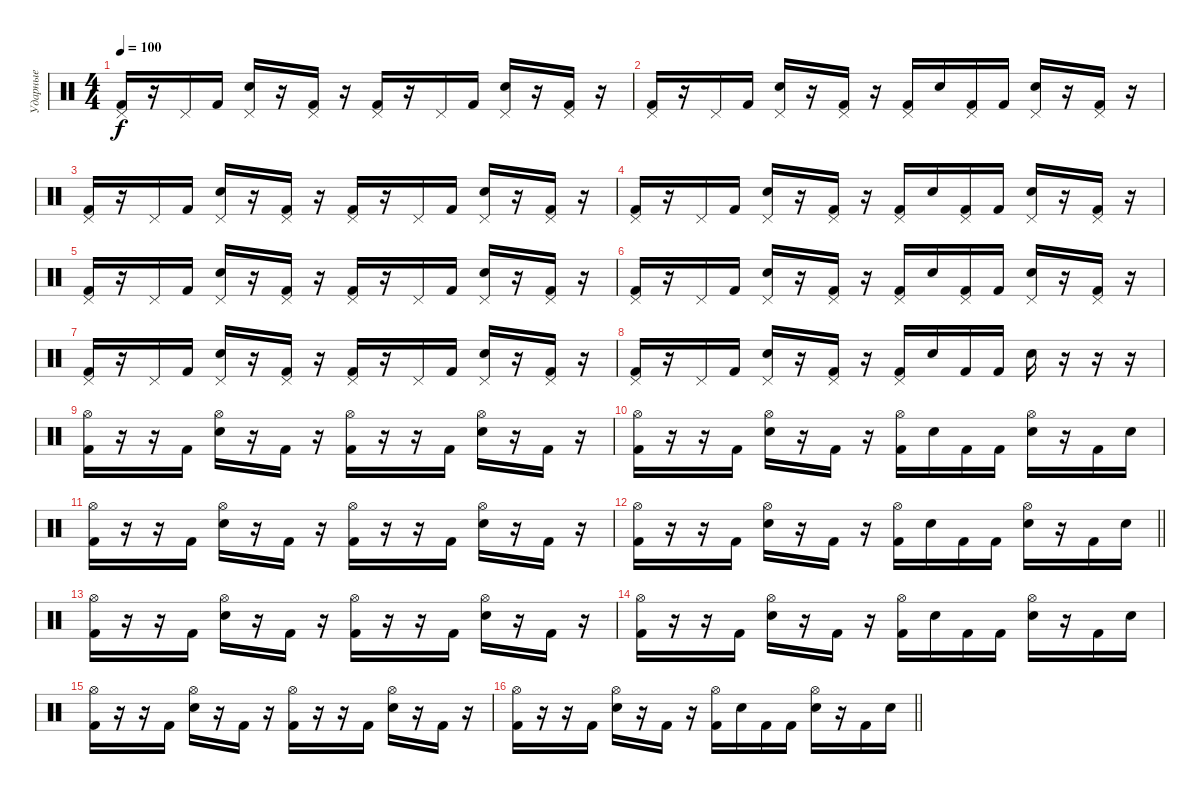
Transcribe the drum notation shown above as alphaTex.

\track ("Ударные" "Ударные") {instrument percussion}
\staff {score}
\articulation defaults
\ts (4 4)
\tempo 100
\clef neutral
\ks c
("Kick (hit) 2" "Pedal Hi-Hat (hit)").16{dy f} r.16 "Pedal Hi-Hat (hit)".16 "Kick (hit) 2".16 ("Electric Snare (hit)" "Pedal Hi-Hat (hit)").16 r.16 ("Kick (hit) 2" "Pedal Hi-Hat (hit)").16 r.16 ("Kick (hit) 2" "Pedal Hi-Hat (hit)").16 r.16 "Pedal Hi-Hat (hit)".16 "Kick (hit) 2".16 ("Electric Snare (hit)" "Pedal Hi-Hat (hit)").16 r.16 ("Kick (hit) 2" "Pedal Hi-Hat (hit)").16 r.16 |
("Kick (hit) 2" "Pedal Hi-Hat (hit)").16 r.16 "Pedal Hi-Hat (hit)".16 "Kick (hit) 2".16 ("Electric Snare (hit)" "Pedal Hi-Hat (hit)").16 r.16 ("Kick (hit) 2" "Pedal Hi-Hat (hit)").16 r.16 ("Kick (hit) 2" "Pedal Hi-Hat (hit)").16 "Electric Snare (hit)".16 ("Kick (hit) 2" "Pedal Hi-Hat (hit)").16 "Kick (hit) 2".16 ("Electric Snare (hit)" "Pedal Hi-Hat (hit)").16 r.16 ("Kick (hit) 2" "Pedal Hi-Hat (hit)").16 r.16 |
("Kick (hit) 2" "Pedal Hi-Hat (hit)").16 r.16 "Pedal Hi-Hat (hit)".16 "Kick (hit) 2".16 ("Electric Snare (hit)" "Pedal Hi-Hat (hit)").16 r.16 ("Kick (hit) 2" "Pedal Hi-Hat (hit)").16 r.16 ("Kick (hit) 2" "Pedal Hi-Hat (hit)").16 r.16 "Pedal Hi-Hat (hit)".16 "Kick (hit) 2".16 ("Electric Snare (hit)" "Pedal Hi-Hat (hit)").16 r.16 ("Kick (hit) 2" "Pedal Hi-Hat (hit)").16 r.16 |
("Kick (hit) 2" "Pedal Hi-Hat (hit)").16 r.16 "Pedal Hi-Hat (hit)".16 "Kick (hit) 2".16 ("Electric Snare (hit)" "Pedal Hi-Hat (hit)").16 r.16 ("Kick (hit) 2" "Pedal Hi-Hat (hit)").16 r.16 ("Kick (hit) 2" "Pedal Hi-Hat (hit)").16 "Electric Snare (hit)".16 ("Kick (hit) 2" "Pedal Hi-Hat (hit)").16 "Kick (hit) 2".16 ("Electric Snare (hit)" "Pedal Hi-Hat (hit)").16 r.16 ("Kick (hit) 2" "Pedal Hi-Hat (hit)").16 r.16 |
("Kick (hit) 2" "Pedal Hi-Hat (hit)").16 r.16 "Pedal Hi-Hat (hit)".16 "Kick (hit) 2".16 ("Electric Snare (hit)" "Pedal Hi-Hat (hit)").16 r.16 ("Kick (hit) 2" "Pedal Hi-Hat (hit)").16 r.16 ("Kick (hit) 2" "Pedal Hi-Hat (hit)").16 r.16 "Pedal Hi-Hat (hit)".16 "Kick (hit) 2".16 ("Electric Snare (hit)" "Pedal Hi-Hat (hit)").16 r.16 ("Kick (hit) 2" "Pedal Hi-Hat (hit)").16 r.16 |
("Kick (hit) 2" "Pedal Hi-Hat (hit)").16 r.16 "Pedal Hi-Hat (hit)".16 "Kick (hit) 2".16 ("Electric Snare (hit)" "Pedal Hi-Hat (hit)").16 r.16 ("Kick (hit) 2" "Pedal Hi-Hat (hit)").16 r.16 ("Kick (hit) 2" "Pedal Hi-Hat (hit)").16 "Electric Snare (hit)".16 ("Kick (hit) 2" "Pedal Hi-Hat (hit)").16 "Kick (hit) 2".16 ("Electric Snare (hit)" "Pedal Hi-Hat (hit)").16 r.16 ("Kick (hit) 2" "Pedal Hi-Hat (hit)").16 r.16 |
("Kick (hit) 2" "Pedal Hi-Hat (hit)").16 r.16 "Pedal Hi-Hat (hit)".16 "Kick (hit) 2".16 ("Electric Snare (hit)" "Pedal Hi-Hat (hit)").16 r.16 ("Kick (hit) 2" "Pedal Hi-Hat (hit)").16 r.16 ("Kick (hit) 2" "Pedal Hi-Hat (hit)").16 r.16 "Pedal Hi-Hat (hit)".16 "Kick (hit) 2".16 ("Electric Snare (hit)" "Pedal Hi-Hat (hit)").16 r.16 ("Kick (hit) 2" "Pedal Hi-Hat (hit)").16 r.16 |
("Kick (hit) 2" "Pedal Hi-Hat (hit)").16 r.16 "Pedal Hi-Hat (hit)".16 "Kick (hit) 2".16 ("Electric Snare (hit)" "Pedal Hi-Hat (hit)").16 r.16 ("Kick (hit) 2" "Pedal Hi-Hat (hit)").16 r.16 ("Kick (hit) 2" "Pedal Hi-Hat (hit)").16 "Electric Snare (hit)".16 "Kick (hit) 2".16 "Kick (hit) 2".16 "Electric Snare (hit)".16 r.16 r.16 r.16 |
("Kick (hit) 2" "Hi-Hat (open)").16 r.16 r.16 "Kick (hit) 2".16 ("Electric Snare (hit)" "Hi-Hat (open)").16 r.16 "Kick (hit) 2".16 r.16 ("Kick (hit) 2" "Hi-Hat (open)").16 r.16 r.16 "Kick (hit) 2".16 ("Electric Snare (hit)" "Hi-Hat (open)").16 r.16 "Kick (hit) 2".16 r.16 |
("Kick (hit) 2" "Hi-Hat (open)").16 r.16 r.16 "Kick (hit) 2".16 ("Electric Snare (hit)" "Hi-Hat (open)").16 r.16 "Kick (hit) 2".16 r.16 ("Kick (hit) 2" "Hi-Hat (open)").16 "Electric Snare (hit)".16 "Kick (hit) 2".16 "Kick (hit) 2".16 ("Electric Snare (hit)" "Hi-Hat (open)").16 r.16 "Kick (hit) 2".16 "Electric Snare (hit)".16 |
("Kick (hit) 2" "Hi-Hat (open)").16 r.16 r.16 "Kick (hit) 2".16 ("Electric Snare (hit)" "Hi-Hat (open)").16 r.16 "Kick (hit) 2".16 r.16 ("Kick (hit) 2" "Hi-Hat (open)").16 r.16 r.16 "Kick (hit) 2".16 ("Electric Snare (hit)" "Hi-Hat (open)").16 r.16 "Kick (hit) 2".16 r.16 |
\barLineRight lightlight
("Kick (hit) 2" "Hi-Hat (open)").16 r.16 r.16 "Kick (hit) 2".16 ("Electric Snare (hit)" "Hi-Hat (open)").16 r.16 "Kick (hit) 2".16 r.16 ("Kick (hit) 2" "Hi-Hat (open)").16 "Electric Snare (hit)".16 "Kick (hit) 2".16 "Kick (hit) 2".16 ("Electric Snare (hit)" "Hi-Hat (open)").16 r.16 "Kick (hit) 2".16 "Electric Snare (hit)".16 |
("Kick (hit) 2" "Hi-Hat (open)").16 r.16 r.16 "Kick (hit) 2".16 ("Electric Snare (hit)" "Hi-Hat (open)").16 r.16 "Kick (hit) 2".16 r.16 ("Kick (hit) 2" "Hi-Hat (open)").16 r.16 r.16 "Kick (hit) 2".16 ("Electric Snare (hit)" "Hi-Hat (open)").16 r.16 "Kick (hit) 2".16 r.16 |
("Kick (hit) 2" "Hi-Hat (open)").16 r.16 r.16 "Kick (hit) 2".16 ("Electric Snare (hit)" "Hi-Hat (open)").16 r.16 "Kick (hit) 2".16 r.16 ("Kick (hit) 2" "Hi-Hat (open)").16 "Electric Snare (hit)".16 "Kick (hit) 2".16 "Kick (hit) 2".16 ("Electric Snare (hit)" "Hi-Hat (open)").16 r.16 "Kick (hit) 2".16 "Electric Snare (hit)".16 |
("Kick (hit) 2" "Hi-Hat (open)").16 r.16 r.16 "Kick (hit) 2".16 ("Electric Snare (hit)" "Hi-Hat (open)").16 r.16 "Kick (hit) 2".16 r.16 ("Kick (hit) 2" "Hi-Hat (open)").16 r.16 r.16 "Kick (hit) 2".16 ("Electric Snare (hit)" "Hi-Hat (open)").16 r.16 "Kick (hit) 2".16 r.16 |
\barLineRight lightlight
("Kick (hit) 2" "Hi-Hat (open)").16 r.16 r.16 "Kick (hit) 2".16 ("Electric Snare (hit)" "Hi-Hat (open)").16 r.16 "Kick (hit) 2".16 r.16 ("Kick (hit) 2" "Hi-Hat (open)").16 "Electric Snare (hit)".16 "Kick (hit) 2".16 "Kick (hit) 2".16 ("Electric Snare (hit)" "Hi-Hat (open)").16 r.16 "Kick (hit) 2".16 "Electric Snare (hit)".16
